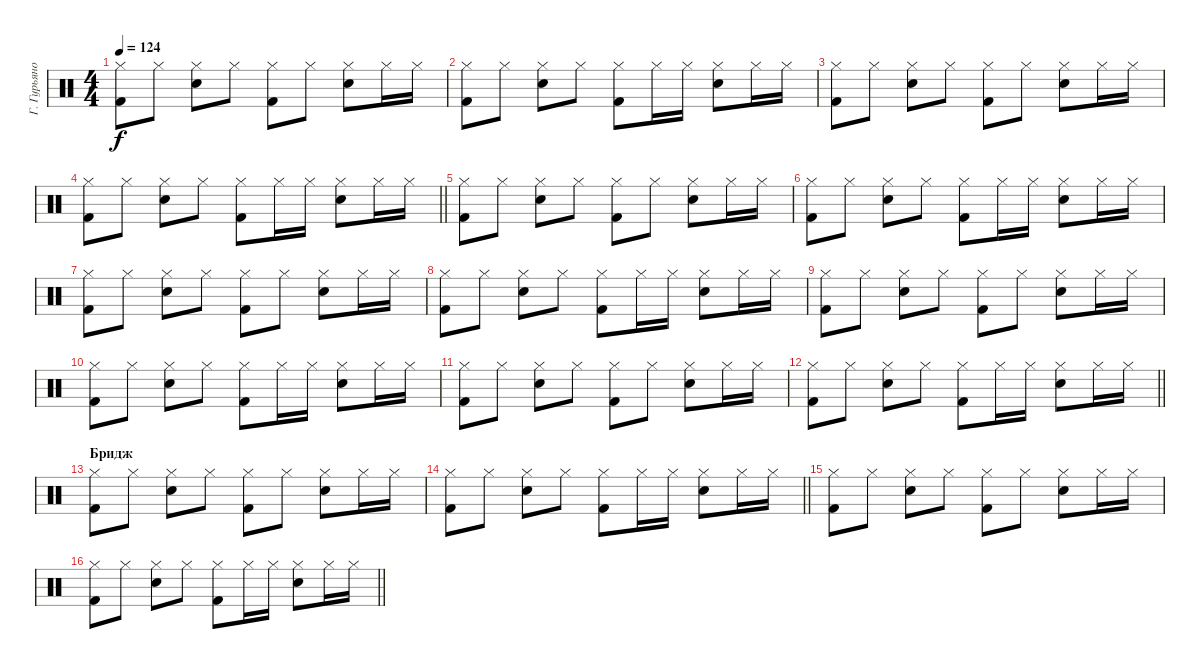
\track ("Г. Гурьянов" "Г. Гурьяно") {instrument percussion}
\staff
\articulation defaults
\ts (4 4)
\tempo 124
\clef neutral
\ks c
("Hi-Hat (closed)" "Kick (hit) 2").8{dy f} "Hi-Hat (closed)".8 ("Hi-Hat (closed)" "Snare (hit) 2").8 "Hi-Hat (closed)".8 ("Hi-Hat (closed)" "Kick (hit) 2").8 "Hi-Hat (closed)".8 ("Hi-Hat (closed)" "Snare (hit) 2").8 "Hi-Hat (closed)".16 "Hi-Hat (closed)".16 |
("Hi-Hat (closed)" "Kick (hit) 2").8 "Hi-Hat (closed)".8 ("Hi-Hat (closed)" "Snare (hit) 2").8 "Hi-Hat (closed)".8 ("Hi-Hat (closed)" "Kick (hit) 2").8 "Hi-Hat (closed)".16 "Hi-Hat (closed)".16 ("Hi-Hat (closed)" "Snare (hit) 2").8 "Hi-Hat (closed)".16 "Hi-Hat (closed)".16 |
("Hi-Hat (closed)" "Kick (hit) 2").8 "Hi-Hat (closed)".8 ("Hi-Hat (closed)" "Snare (hit) 2").8 "Hi-Hat (closed)".8 ("Hi-Hat (closed)" "Kick (hit) 2").8 "Hi-Hat (closed)".8 ("Hi-Hat (closed)" "Snare (hit) 2").8 "Hi-Hat (closed)".16 "Hi-Hat (closed)".16 |
\barLineRight lightlight
("Hi-Hat (closed)" "Kick (hit) 2").8 "Hi-Hat (closed)".8 ("Hi-Hat (closed)" "Snare (hit) 2").8 "Hi-Hat (closed)".8 ("Hi-Hat (closed)" "Kick (hit) 2").8 "Hi-Hat (closed)".16 "Hi-Hat (closed)".16 ("Hi-Hat (closed)" "Snare (hit) 2").8 "Hi-Hat (closed)".16 "Hi-Hat (closed)".16 |
("Hi-Hat (closed)" "Kick (hit) 2").8 "Hi-Hat (closed)".8 ("Hi-Hat (closed)" "Snare (hit) 2").8 "Hi-Hat (closed)".8 ("Hi-Hat (closed)" "Kick (hit) 2").8 "Hi-Hat (closed)".8 ("Hi-Hat (closed)" "Snare (hit) 2").8 "Hi-Hat (closed)".16 "Hi-Hat (closed)".16 |
("Hi-Hat (closed)" "Kick (hit) 2").8 "Hi-Hat (closed)".8 ("Hi-Hat (closed)" "Snare (hit) 2").8 "Hi-Hat (closed)".8 ("Hi-Hat (closed)" "Kick (hit) 2").8 "Hi-Hat (closed)".16 "Hi-Hat (closed)".16 ("Hi-Hat (closed)" "Snare (hit) 2").8 "Hi-Hat (closed)".16 "Hi-Hat (closed)".16 |
("Hi-Hat (closed)" "Kick (hit) 2").8 "Hi-Hat (closed)".8 ("Hi-Hat (closed)" "Snare (hit) 2").8 "Hi-Hat (closed)".8 ("Hi-Hat (closed)" "Kick (hit) 2").8 "Hi-Hat (closed)".8 ("Hi-Hat (closed)" "Snare (hit) 2").8 "Hi-Hat (closed)".16 "Hi-Hat (closed)".16 |
("Hi-Hat (closed)" "Kick (hit) 2").8 "Hi-Hat (closed)".8 ("Hi-Hat (closed)" "Snare (hit) 2").8 "Hi-Hat (closed)".8 ("Hi-Hat (closed)" "Kick (hit) 2").8 "Hi-Hat (closed)".16 "Hi-Hat (closed)".16 ("Hi-Hat (closed)" "Snare (hit) 2").8 "Hi-Hat (closed)".16 "Hi-Hat (closed)".16 |
("Hi-Hat (closed)" "Kick (hit) 2").8 "Hi-Hat (closed)".8 ("Hi-Hat (closed)" "Snare (hit) 2").8 "Hi-Hat (closed)".8 ("Hi-Hat (closed)" "Kick (hit) 2").8 "Hi-Hat (closed)".8 ("Hi-Hat (closed)" "Snare (hit) 2").8 "Hi-Hat (closed)".16 "Hi-Hat (closed)".16 |
("Hi-Hat (closed)" "Kick (hit) 2").8 "Hi-Hat (closed)".8 ("Hi-Hat (closed)" "Snare (hit) 2").8 "Hi-Hat (closed)".8 ("Hi-Hat (closed)" "Kick (hit) 2").8 "Hi-Hat (closed)".16 "Hi-Hat (closed)".16 ("Hi-Hat (closed)" "Snare (hit) 2").8 "Hi-Hat (closed)".16 "Hi-Hat (closed)".16 |
("Hi-Hat (closed)" "Kick (hit) 2").8 "Hi-Hat (closed)".8 ("Hi-Hat (closed)" "Snare (hit) 2").8 "Hi-Hat (closed)".8 ("Hi-Hat (closed)" "Kick (hit) 2").8 "Hi-Hat (closed)".8 ("Hi-Hat (closed)" "Snare (hit) 2").8 "Hi-Hat (closed)".16 "Hi-Hat (closed)".16 |
\barLineRight lightlight
("Hi-Hat (closed)" "Kick (hit) 2").8 "Hi-Hat (closed)".8 ("Hi-Hat (closed)" "Snare (hit) 2").8 "Hi-Hat (closed)".8 ("Hi-Hat (closed)" "Kick (hit) 2").8 "Hi-Hat (closed)".16 "Hi-Hat (closed)".16 ("Hi-Hat (closed)" "Snare (hit) 2").8 "Hi-Hat (closed)".16 "Hi-Hat (closed)".16 |
\section ("" "Бридж")
("Hi-Hat (closed)" "Kick (hit) 2").8 "Hi-Hat (closed)".8 ("Hi-Hat (closed)" "Snare (hit) 2").8 "Hi-Hat (closed)".8 ("Hi-Hat (closed)" "Kick (hit) 2").8 "Hi-Hat (closed)".8 ("Hi-Hat (closed)" "Snare (hit) 2").8 "Hi-Hat (closed)".16 "Hi-Hat (closed)".16 |
\barLineRight lightlight
("Hi-Hat (closed)" "Kick (hit) 2").8 "Hi-Hat (closed)".8 ("Hi-Hat (closed)" "Snare (hit) 2").8 "Hi-Hat (closed)".8 ("Hi-Hat (closed)" "Kick (hit) 2").8 "Hi-Hat (closed)".16 "Hi-Hat (closed)".16 ("Hi-Hat (closed)" "Snare (hit) 2").8 "Hi-Hat (closed)".16 "Hi-Hat (closed)".16 |
("Hi-Hat (closed)" "Kick (hit) 2").8 "Hi-Hat (closed)".8 ("Hi-Hat (closed)" "Snare (hit) 2").8 "Hi-Hat (closed)".8 ("Hi-Hat (closed)" "Kick (hit) 2").8 "Hi-Hat (closed)".8 ("Hi-Hat (closed)" "Snare (hit) 2").8 "Hi-Hat (closed)".16 "Hi-Hat (closed)".16 |
\barLineRight lightlight
("Hi-Hat (closed)" "Kick (hit) 2").8 "Hi-Hat (closed)".8 ("Hi-Hat (closed)" "Snare (hit) 2").8 "Hi-Hat (closed)".8 ("Hi-Hat (closed)" "Kick (hit) 2").8 "Hi-Hat (closed)".16 "Hi-Hat (closed)".16 ("Hi-Hat (closed)" "Snare (hit) 2").8 "Hi-Hat (closed)".16 "Hi-Hat (closed)".16
